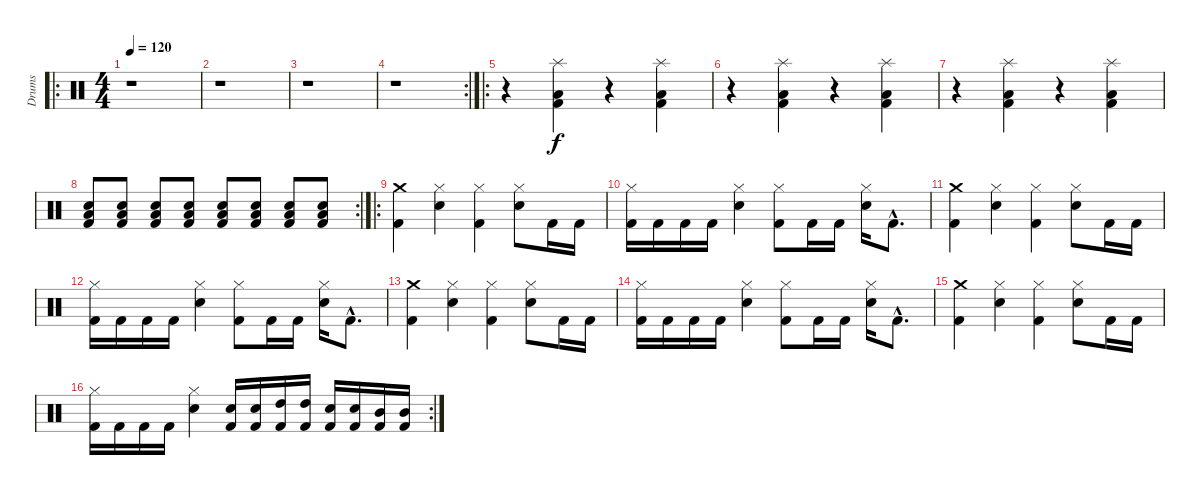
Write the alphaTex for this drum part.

\track ("Drums" "Drums") {instrument percussion}
\staff {score}
\articulation defaults
\ro
\ts (4 4)
\tempo 120
\clef neutral
\ks c
r.1{dy f} |
r.1 |
r.1 |
\rc 2
r.1 |
\ro
r.4 ("Kick (hit) 2" "Low Floor Tom (hit)" "Splash (hit)").4 r.4 ("Kick (hit) 2" "Low Floor Tom (hit)" "Splash (hit)").4 |
r.4 ("Kick (hit) 2" "Low Floor Tom (hit)" "Splash (hit)").4 r.4 ("Kick (hit) 2" "Low Floor Tom (hit)" "Splash (hit)").4 |
r.4 ("Kick (hit) 2" "Low Floor Tom (hit)" "Splash (hit)").4 r.4 ("Kick (hit) 2" "Low Floor Tom (hit)" "Splash (hit)").4 |
\rc 2
("Kick (hit) 2" "Low Floor Tom (hit)" "Snare (hit) 2").8 ("Kick (hit) 2" "Low Floor Tom (hit)" "Snare (hit) 2").8 ("Kick (hit) 2" "Low Floor Tom (hit)" "Snare (hit) 2").8 ("Kick (hit) 2" "Low Floor Tom (hit)" "Snare (hit) 2").8 ("Kick (hit) 2" "Low Floor Tom (hit)" "Snare (hit) 2").8 ("Kick (hit) 2" "Low Floor Tom (hit)" "Snare (hit) 2").8 ("Kick (hit) 2" "Low Floor Tom (hit)" "Snare (hit) 2").8 ("Kick (hit) 2" "Low Floor Tom (hit)" "Snare (hit) 2").8 |
\ro
("Kick (hit) 2" "Crash medium (hit)").4 ("Hi-Hat (closed)" "Snare (hit) 2").4 ("Kick (hit) 2" "Hi-Hat (closed)").4 ("Hi-Hat (closed)" "Snare (hit) 2").8 "Kick (hit) 2".16 "Kick (hit) 2".16 |
("Kick (hit) 2" "Hi-Hat (closed)").16 "Kick (hit) 2".16 "Kick (hit) 2".16 "Kick (hit) 2".16 ("Hi-Hat (closed)" "Snare (hit) 2").4 ("Kick (hit) 2" "Hi-Hat (closed)").8 "Kick (hit) 2".16 "Kick (hit) 2".16 ("Hi-Hat (closed)" "Snare (hit) 2").16 "Kick (hit) 2"{hac}.8{d} |
("Kick (hit) 2" "Crash medium (hit)").4 ("Hi-Hat (closed)" "Snare (hit) 2").4 ("Kick (hit) 2" "Hi-Hat (closed)").4 ("Hi-Hat (closed)" "Snare (hit) 2").8 "Kick (hit) 2".16 "Kick (hit) 2".16 |
("Kick (hit) 2" "Hi-Hat (closed)").16 "Kick (hit) 2".16 "Kick (hit) 2".16 "Kick (hit) 2".16 ("Hi-Hat (closed)" "Snare (hit) 2").4 ("Kick (hit) 2" "Hi-Hat (closed)").8 "Kick (hit) 2".16 "Kick (hit) 2".16 ("Hi-Hat (closed)" "Snare (hit) 2").16 "Kick (hit) 2"{hac}.8{d} |
("Kick (hit) 2" "Crash medium (hit)").4 ("Hi-Hat (closed)" "Snare (hit) 2").4 ("Kick (hit) 2" "Hi-Hat (closed)").4 ("Hi-Hat (closed)" "Snare (hit) 2").8 "Kick (hit) 2".16 "Kick (hit) 2".16 |
("Kick (hit) 2" "Hi-Hat (closed)").16 "Kick (hit) 2".16 "Kick (hit) 2".16 "Kick (hit) 2".16 ("Hi-Hat (closed)" "Snare (hit) 2").4 ("Kick (hit) 2" "Hi-Hat (closed)").8 "Kick (hit) 2".16 "Kick (hit) 2".16 ("Hi-Hat (closed)" "Snare (hit) 2").16 "Kick (hit) 2"{hac}.8{d} |
("Kick (hit) 2" "Crash medium (hit)").4 ("Hi-Hat (closed)" "Snare (hit) 2").4 ("Kick (hit) 2" "Hi-Hat (closed)").4 ("Hi-Hat (closed)" "Snare (hit) 2").8 "Kick (hit) 2".16 "Kick (hit) 2".16 |
\rc 2
("Kick (hit) 2" "Hi-Hat (closed)").16 "Kick (hit) 2".16 "Kick (hit) 2".16 "Kick (hit) 2".16 ("Hi-Hat (closed)" "Snare (hit) 2").4 ("Kick (hit) 2" "Snare (hit) 2").16 ("Kick (hit) 2" "Snare (hit) 2").16 ("Kick (hit) 2" "High Tom (hit)").16 ("Kick (hit) 2" "High Tom (hit)").16 ("Kick (hit) 2" "Snare (hit) 2").16 ("Kick (hit) 2" "Snare (hit) 2").16 ("Kick (hit) 2" "Mid Tom (hit)").16 ("Kick (hit) 2" "Mid Tom (hit)").16
